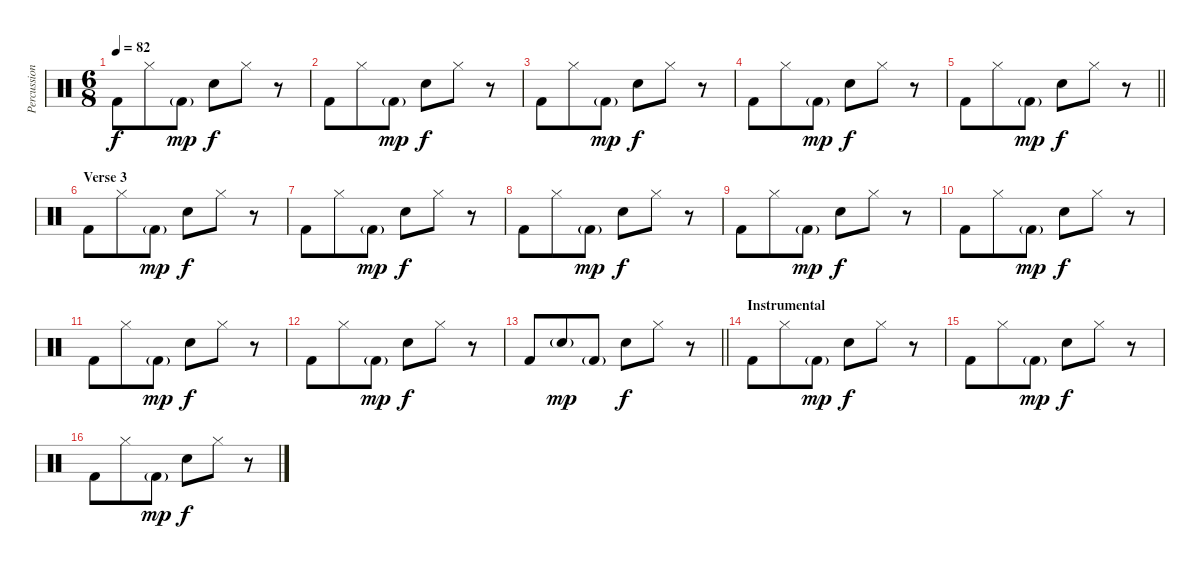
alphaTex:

\track ("Percussion" "Percussion") {instrument percussion}
\staff {score}
\articulation defaults
\ts (6 8)
\tempo 82
\clef neutral
\ks c "Kick (hit) 2".8{dy f} "Hi-Hat (closed)".8 "Kick (hit) 2"{g}.8{dy mp} "Snare (hit) 2".8{dy f} "Hi-Hat (closed)".8
r.8 |
"Kick (hit) 2".8 "Hi-Hat (closed)".8 "Kick (hit) 2"{g}.8{dy mp} "Snare (hit) 2".8{dy f} "Hi-Hat (closed)".8 r.8 |
"Kick (hit) 2".8 "Hi-Hat (closed)".8 "Kick (hit) 2"{g}.8{dy mp} "Snare (hit) 2".8{dy f} "Hi-Hat (closed)".8 r.8 |
"Kick (hit) 2".8 "Hi-Hat (closed)".8 "Kick (hit) 2"{g}.8{dy mp} "Snare (hit) 2".8{dy f} "Hi-Hat (closed)".8 r.8 |
\barLineRight lightlight "Kick (hit) 2".8 "Hi-Hat (closed)".8 "Kick (hit) 2"{g}.8{dy mp} "Snare (hit) 2".8{dy f} "Hi-Hat (closed)".8
r.8 |
\section ("" "Verse 3")
"Kick (hit) 2".8 "Hi-Hat (closed)".8 "Kick (hit) 2"{g}.8{dy mp} "Snare (hit) 2".8{dy f} "Hi-Hat (closed)".8 r.8 |
"Kick (hit) 2".8 "Hi-Hat (closed)".8 "Kick (hit) 2"{g}.8{dy mp} "Snare (hit) 2".8{dy f} "Hi-Hat (closed)".8 r.8 |
"Kick (hit) 2".8 "Hi-Hat (closed)".8 "Kick (hit) 2"{g}.8{dy mp} "Snare (hit) 2".8{dy f} "Hi-Hat (closed)".8 r.8 |
"Kick (hit) 2".8 "Hi-Hat (closed)".8 "Kick (hit) 2"{g}.8{dy mp} "Snare (hit) 2".8{dy f} "Hi-Hat (closed)".8 r.8 |
"Kick (hit) 2".8 "Hi-Hat (closed)".8 "Kick (hit) 2"{g}.8{dy mp} "Snare (hit) 2".8{dy f} "Hi-Hat (closed)".8 r.8 |
"Kick (hit) 2".8 "Hi-Hat (closed)".8 "Kick (hit) 2"{g}.8{dy mp} "Snare (hit) 2".8{dy f} "Hi-Hat (closed)".8 r.8 |
"Kick (hit) 2".8 "Hi-Hat (closed)".8 "Kick (hit) 2"{g}.8{dy mp} "Snare (hit) 2".8{dy f} "Hi-Hat (closed)".8 r.8 |
\barLineRight lightlight "Kick (hit) 2".8 "Snare (hit) 2"{g}.8{dy mp} "Kick (hit) 2"{g}.8 "Snare (hit) 2".8{dy f} "Hi-Hat (closed)".8
r.8 |
\section ("" "Instrumental")
"Kick (hit) 2".8 "Hi-Hat (closed)".8 "Kick (hit) 2"{g}.8{dy mp} "Snare (hit) 2".8{dy f} "Hi-Hat (closed)".8 r.8 |
"Kick (hit) 2".8 "Hi-Hat (closed)".8 "Kick (hit) 2"{g}.8{dy mp} "Snare (hit) 2".8{dy f} "Hi-Hat (closed)".8 r.8 |
"Kick (hit) 2".8 "Hi-Hat (closed)".8 "Kick (hit) 2"{g}.8{dy mp} "Snare (hit) 2".8{dy f} "Hi-Hat (closed)".8 r.8
